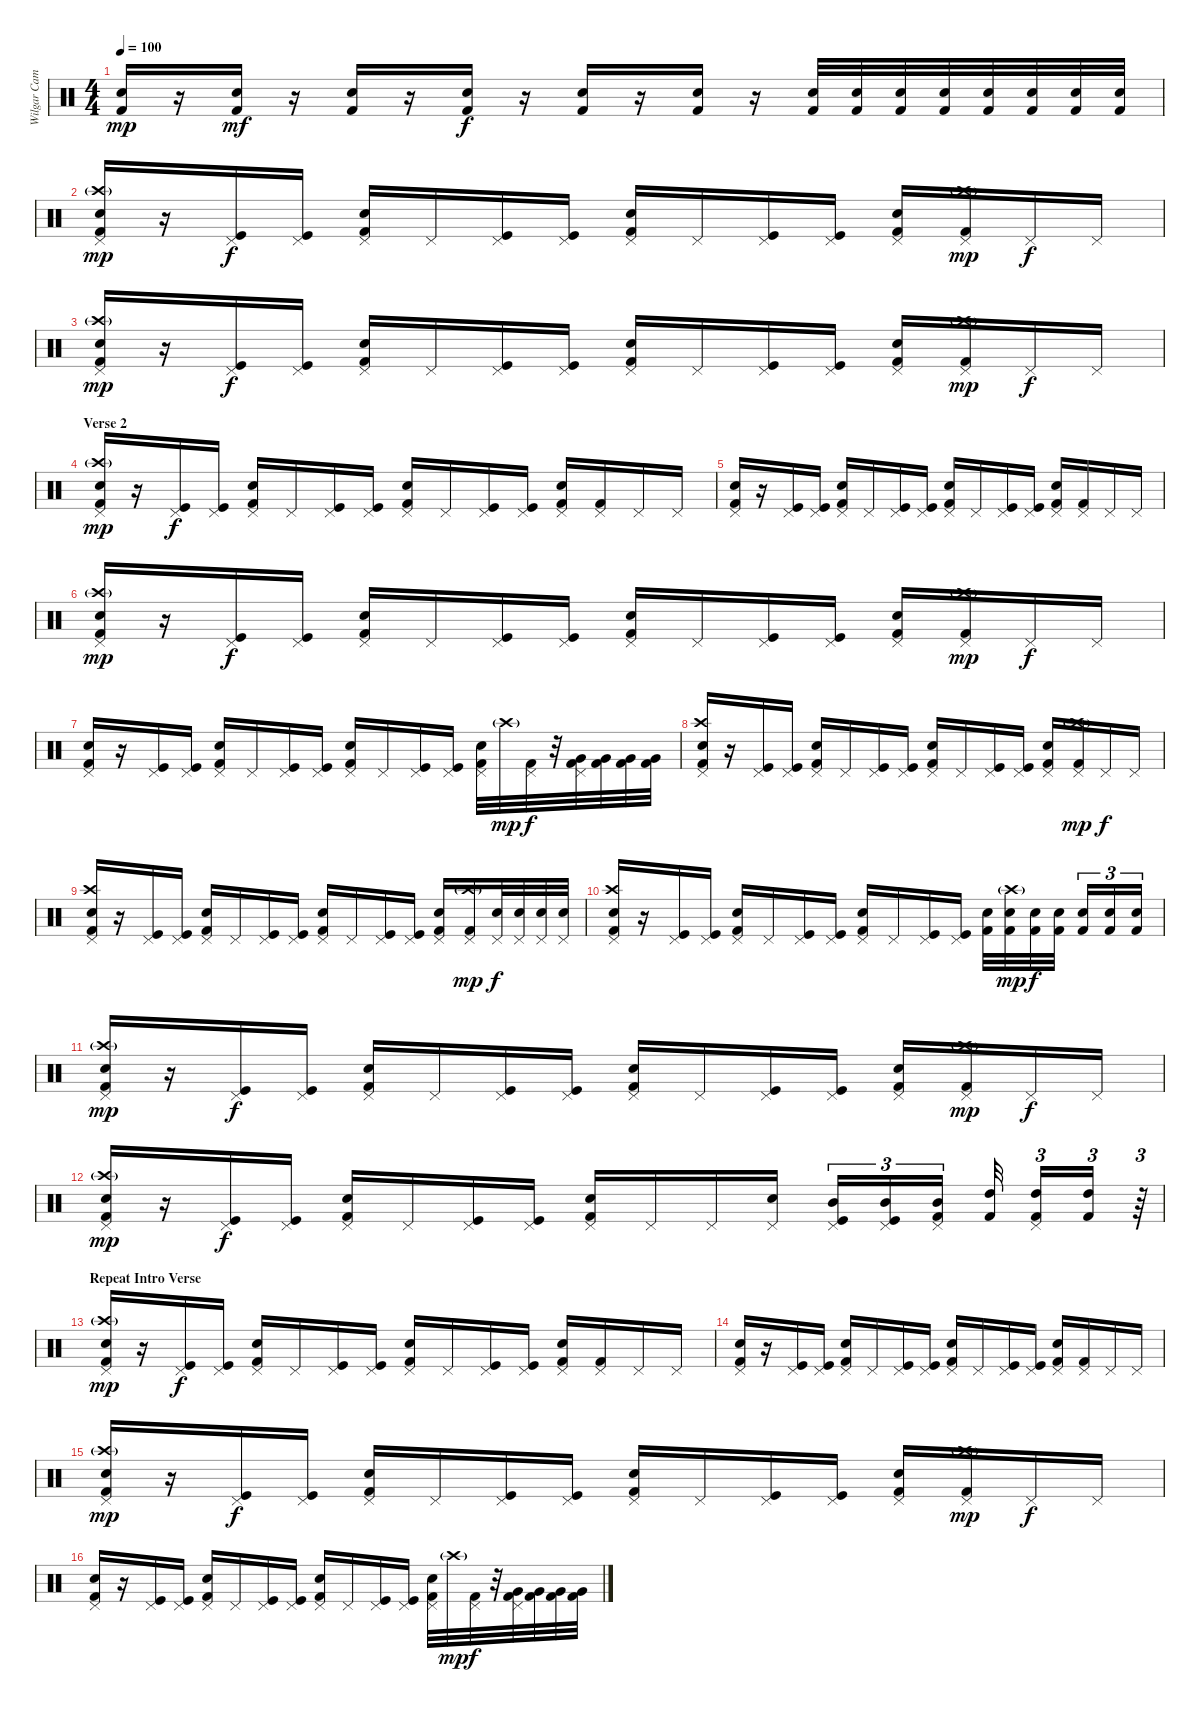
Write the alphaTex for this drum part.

\track ("Wilgar Campbell" "Wilgar Cam") {instrument percussion}
\staff {score}
\articulation defaults
\ts (4 4)
\tempo 100
\clef neutral
\ks c
("Snare (hit) 2" "Kick (hit) 2").16{dy mp} r.16 ("Snare (hit) 2" "Kick (hit) 2").16{dy mf} r.16 ("Snare (hit) 2" "Kick (hit) 2").16 r.16 ("Snare (hit) 2" "Kick (hit) 2").16{dy f} r.16 ("Snare (hit) 2" "Kick (hit) 2").16 r.16 ("Snare (hit) 2" "Kick (hit) 2").16 r.16 ("Snare (hit) 2" "Kick (hit) 2").32 ("Snare (hit) 2" "Kick (hit) 2").32 ("Snare (hit) 2" "Kick (hit) 2").32 ("Snare (hit) 2" "Kick (hit) 2").32 ("Electric Snare (hit)" "Kick (hit) 2").32 ("Electric Snare (hit)" "Kick (hit) 2").32 ("Electric Snare (hit)" "Kick (hit) 2").32 ("Electric Snare (hit)" "Kick (hit) 2").32 |
("Crash high (hit)"{g} "Snare (hit) 2" "Pedal Hi-Hat (hit)" "Kick (hit) 2").16{dy mp} r.16 ("Pedal Hi-Hat (hit)" "Kick (hit)").16{dy f} ("Pedal Hi-Hat (hit)" "Kick (hit)").16 ("Snare (hit) 2" "Pedal Hi-Hat (hit)" "Kick (hit) 2").16 "Pedal Hi-Hat (hit)".16 ("Pedal Hi-Hat (hit)" "Kick (hit)").16 ("Pedal Hi-Hat (hit)" "Kick (hit)").16 ("Snare (hit) 2" "Pedal Hi-Hat (hit)" "Kick (hit) 2").16 "Pedal Hi-Hat (hit)".16 ("Pedal Hi-Hat (hit)" "Kick (hit)").16 ("Pedal Hi-Hat (hit)" "Kick (hit)").16 ("Snare (hit) 2" "Pedal Hi-Hat (hit)" "Kick (hit) 2").16 ("Crash high (hit)"{g} "Pedal Hi-Hat (hit)" "Kick (hit) 2").16{dy mp} "Pedal Hi-Hat (hit)".16{dy f} "Pedal Hi-Hat (hit)".16 |
("Crash high (hit)"{g} "Snare (hit) 2" "Pedal Hi-Hat (hit)" "Kick (hit) 2").16{dy mp} r.16 ("Pedal Hi-Hat (hit)" "Kick (hit)").16{dy f} ("Pedal Hi-Hat (hit)" "Kick (hit)").16 ("Snare (hit) 2" "Pedal Hi-Hat (hit)" "Kick (hit) 2").16 "Pedal Hi-Hat (hit)".16 ("Pedal Hi-Hat (hit)" "Kick (hit)").16 ("Pedal Hi-Hat (hit)" "Kick (hit)").16 ("Snare (hit) 2" "Pedal Hi-Hat (hit)" "Kick (hit) 2").16 "Pedal Hi-Hat (hit)".16 ("Pedal Hi-Hat (hit)" "Kick (hit)").16 ("Pedal Hi-Hat (hit)" "Kick (hit)").16 ("Snare (hit) 2" "Pedal Hi-Hat (hit)" "Kick (hit) 2").16 ("Crash high (hit)"{g} "Pedal Hi-Hat (hit)" "Kick (hit) 2").16{dy mp} "Pedal Hi-Hat (hit)".16{dy f} "Pedal Hi-Hat (hit)".16 |
\section ("" "Verse 2")
("Crash high (hit)"{g} "Snare (hit) 2" "Pedal Hi-Hat (hit)" "Kick (hit) 2").16{dy mp} r.16 ("Pedal Hi-Hat (hit)" "Kick (hit)").16{dy f} ("Pedal Hi-Hat (hit)" "Kick (hit)").16 ("Snare (hit) 2" "Pedal Hi-Hat (hit)" "Kick (hit) 2").16 "Pedal Hi-Hat (hit)".16 ("Pedal Hi-Hat (hit)" "Kick (hit)").16 ("Pedal Hi-Hat (hit)" "Kick (hit)").16 ("Snare (hit) 2" "Pedal Hi-Hat (hit)" "Kick (hit) 2").16 "Pedal Hi-Hat (hit)".16 ("Pedal Hi-Hat (hit)" "Kick (hit)").16 ("Pedal Hi-Hat (hit)" "Kick (hit)").16 ("Snare (hit) 2" "Pedal Hi-Hat (hit)" "Kick (hit) 2").16 ("Pedal Hi-Hat (hit)" "Kick (hit) 2").16 "Pedal Hi-Hat (hit)".16 "Pedal Hi-Hat (hit)".16 |
("Snare (hit) 2" "Pedal Hi-Hat (hit)" "Kick (hit) 2").16 r.16 ("Pedal Hi-Hat (hit)" "Kick (hit)").16 ("Pedal Hi-Hat (hit)" "Kick (hit)").16 ("Snare (hit) 2" "Pedal Hi-Hat (hit)" "Kick (hit) 2").16 "Pedal Hi-Hat (hit)".16 ("Pedal Hi-Hat (hit)" "Kick (hit)").16 ("Pedal Hi-Hat (hit)" "Kick (hit)").16 ("Snare (hit) 2" "Pedal Hi-Hat (hit)" "Kick (hit) 2").16 "Pedal Hi-Hat (hit)".16 ("Pedal Hi-Hat (hit)" "Kick (hit)").16 ("Pedal Hi-Hat (hit)" "Kick (hit)").16 ("Snare (hit) 2" "Pedal Hi-Hat (hit)" "Kick (hit) 2").16 ("Pedal Hi-Hat (hit)" "Kick (hit) 2").16 "Pedal Hi-Hat (hit)".16 "Pedal Hi-Hat (hit)".16 |
("Crash high (hit)"{g} "Snare (hit) 2" "Pedal Hi-Hat (hit)" "Kick (hit) 2").16{dy mp} r.16 ("Pedal Hi-Hat (hit)" "Kick (hit)").16{dy f} ("Pedal Hi-Hat (hit)" "Kick (hit)").16 ("Snare (hit) 2" "Pedal Hi-Hat (hit)" "Kick (hit) 2").16 "Pedal Hi-Hat (hit)".16 ("Pedal Hi-Hat (hit)" "Kick (hit)").16 ("Pedal Hi-Hat (hit)" "Kick (hit)").16 ("Snare (hit) 2" "Pedal Hi-Hat (hit)" "Kick (hit) 2").16 "Pedal Hi-Hat (hit)".16 ("Pedal Hi-Hat (hit)" "Kick (hit)").16 ("Pedal Hi-Hat (hit)" "Kick (hit)").16 ("Snare (hit) 2" "Pedal Hi-Hat (hit)" "Kick (hit) 2").16 ("Crash high (hit)"{g} "Pedal Hi-Hat (hit)" "Kick (hit) 2").16{dy mp} "Pedal Hi-Hat (hit)".16{dy f} "Pedal Hi-Hat (hit)".16 |
("Snare (hit) 2" "Pedal Hi-Hat (hit)" "Kick (hit) 2").16 r.16 ("Pedal Hi-Hat (hit)" "Kick (hit)").16 ("Pedal Hi-Hat (hit)" "Kick (hit)").16 ("Snare (hit) 2" "Pedal Hi-Hat (hit)" "Kick (hit) 2").16 "Pedal Hi-Hat (hit)".16 ("Pedal Hi-Hat (hit)" "Kick (hit)").16 ("Pedal Hi-Hat (hit)" "Kick (hit)").16 ("Snare (hit) 2" "Pedal Hi-Hat (hit)" "Kick (hit) 2").16 "Pedal Hi-Hat (hit)".16 ("Pedal Hi-Hat (hit)" "Kick (hit)").16 ("Pedal Hi-Hat (hit)" "Kick (hit)").16 ("Snare (hit) 2" "Pedal Hi-Hat (hit)" "Kick (hit) 2").32 "Crash high (hit)"{g}.32{dy mp} ("Pedal Hi-Hat (hit)" "Kick (hit) 2").32{dy f} r.32 ("Pedal Hi-Hat (hit)" "Very Low Tom (hit)" "Kick (hit) 2").32 ("Very Low Tom (hit)" "Kick (hit) 2").32 ("Very Low Tom (hit)" "Kick (hit) 2").32 ("Very Low Tom (hit)" "Kick (hit) 2").32 |
("Crash high (hit)" "Snare (hit) 2" "Pedal Hi-Hat (hit)" "Kick (hit) 2").16 r.16 ("Pedal Hi-Hat (hit)" "Kick (hit)").16 ("Pedal Hi-Hat (hit)" "Kick (hit)").16 ("Snare (hit) 2" "Pedal Hi-Hat (hit)" "Kick (hit) 2").16 "Pedal Hi-Hat (hit)".16 ("Pedal Hi-Hat (hit)" "Kick (hit)").16 ("Pedal Hi-Hat (hit)" "Kick (hit)").16 ("Snare (hit) 2" "Pedal Hi-Hat (hit)" "Kick (hit) 2").16 "Pedal Hi-Hat (hit)".16 ("Pedal Hi-Hat (hit)" "Kick (hit)").16 ("Pedal Hi-Hat (hit)" "Kick (hit)").16 ("Snare (hit) 2" "Pedal Hi-Hat (hit)" "Kick (hit) 2").16 ("Crash high (hit)"{g} "Pedal Hi-Hat (hit)" "Kick (hit) 2").16{dy mp} "Pedal Hi-Hat (hit)".16{dy f} "Pedal Hi-Hat (hit)".16 |
("Crash high (hit)" "Snare (hit) 2" "Pedal Hi-Hat (hit)" "Kick (hit) 2").16 r.16 ("Pedal Hi-Hat (hit)" "Kick (hit)").16 ("Pedal Hi-Hat (hit)" "Kick (hit)").16 ("Snare (hit) 2" "Pedal Hi-Hat (hit)" "Kick (hit) 2").16 "Pedal Hi-Hat (hit)".16 ("Pedal Hi-Hat (hit)" "Kick (hit)").16 ("Pedal Hi-Hat (hit)" "Kick (hit)").16 ("Snare (hit) 2" "Pedal Hi-Hat (hit)" "Kick (hit) 2").16 "Pedal Hi-Hat (hit)".16 ("Pedal Hi-Hat (hit)" "Kick (hit)").16 ("Pedal Hi-Hat (hit)" "Kick (hit)").16 ("Snare (hit) 2" "Pedal Hi-Hat (hit)" "Kick (hit) 2").16 ("Crash high (hit)"{g} "Pedal Hi-Hat (hit)" "Kick (hit) 2").16{dy mp} ("Pedal Hi-Hat (hit)" "Electric Snare (hit)").32{dy f} ("Pedal Hi-Hat (hit)" "Electric Snare (hit)").32 ("Pedal Hi-Hat (hit)" "Electric Snare (hit)").32 ("Pedal Hi-Hat (hit)" "Electric Snare (hit)").32 |
("Crash high (hit)" "Snare (hit) 2" "Pedal Hi-Hat (hit)" "Kick (hit) 2").16 r.16 ("Pedal Hi-Hat (hit)" "Kick (hit)").16 ("Pedal Hi-Hat (hit)" "Kick (hit)").16 ("Snare (hit) 2" "Pedal Hi-Hat (hit)" "Kick (hit) 2").16 "Pedal Hi-Hat (hit)".16 ("Pedal Hi-Hat (hit)" "Kick (hit)").16 ("Pedal Hi-Hat (hit)" "Kick (hit)").16 ("Snare (hit) 2" "Pedal Hi-Hat (hit)" "Kick (hit) 2").16 "Pedal Hi-Hat (hit)".16 ("Pedal Hi-Hat (hit)" "Kick (hit)").16 ("Pedal Hi-Hat (hit)" "Kick (hit)").16 ("Snare (hit) 2" "Kick (hit) 2").32 ("Crash high (hit)"{g} "Snare (hit) 2" "Kick (hit) 2").32{dy mp} ("Snare (hit) 2" "Kick (hit) 2").32{dy f} ("Snare (hit) 2" "Kick (hit) 2").32 ("Snare (hit) 2" "Kick (hit) 2").16{tu (3 2)} ("Snare (hit) 2" "Kick (hit) 2").16{tu (3 2)} ("Snare (hit) 2" "Kick (hit) 2").16{tu (3 2)} |
("Crash high (hit)"{g} "Snare (hit) 2" "Pedal Hi-Hat (hit)" "Kick (hit) 2").16{dy mp} r.16 ("Pedal Hi-Hat (hit)" "Kick (hit)").16{dy f} ("Pedal Hi-Hat (hit)" "Kick (hit)").16 ("Snare (hit) 2" "Pedal Hi-Hat (hit)" "Kick (hit) 2").16 "Pedal Hi-Hat (hit)".16 ("Pedal Hi-Hat (hit)" "Kick (hit)").16 ("Pedal Hi-Hat (hit)" "Kick (hit)").16 ("Snare (hit) 2" "Pedal Hi-Hat (hit)" "Kick (hit) 2").16 "Pedal Hi-Hat (hit)".16 ("Pedal Hi-Hat (hit)" "Kick (hit)").16 ("Pedal Hi-Hat (hit)" "Kick (hit)").16 ("Snare (hit) 2" "Pedal Hi-Hat (hit)" "Kick (hit) 2").16 ("Crash high (hit)"{g} "Pedal Hi-Hat (hit)" "Kick (hit) 2").16{dy mp} "Pedal Hi-Hat (hit)".16{dy f} "Pedal Hi-Hat (hit)".16 |
("Crash high (hit)"{g} "Snare (hit) 2" "Pedal Hi-Hat (hit)" "Kick (hit) 2").16{dy mp} r.16 ("Pedal Hi-Hat (hit)" "Kick (hit)").16{dy f} ("Pedal Hi-Hat (hit)" "Kick (hit)").16 ("Snare (hit) 2" "Pedal Hi-Hat (hit)" "Kick (hit) 2").16 "Pedal Hi-Hat (hit)".16 ("Pedal Hi-Hat (hit)" "Kick (hit)").16 ("Pedal Hi-Hat (hit)" "Kick (hit)").16 ("Snare (hit) 2" "Pedal Hi-Hat (hit)" "Kick (hit) 2").16 "Pedal Hi-Hat (hit)".16 "Pedal Hi-Hat (hit)".16 ("Electric Snare (hit)" "Pedal Hi-Hat (hit)").16 ("Mid Tom (hit)" "Pedal Hi-Hat (hit)" "Kick (hit)").16{tu (3 2)} ("Mid Tom (hit)" "Pedal Hi-Hat (hit)" "Kick (hit)").16{tu (3 2)} ("Mid Tom (hit)" "Pedal Hi-Hat (hit)" "Kick (hit) 2").16{tu (3 2)} ("High Tom (hit)" "Kick (hit) 2").32 ("High Tom (hit)" "Pedal Hi-Hat (hit)" "Kick (hit) 2").16{tu (3 2)} ("High Tom (hit)" "Kick (hit) 2").16{tu (3 2)} r.64{tu (3 2)} |
\section ("" "Repeat Intro Verse")
("Crash high (hit)"{g} "Snare (hit) 2" "Pedal Hi-Hat (hit)" "Kick (hit) 2").16{dy mp} r.16 ("Pedal Hi-Hat (hit)" "Kick (hit)").16{dy f} ("Pedal Hi-Hat (hit)" "Kick (hit)").16 ("Snare (hit) 2" "Pedal Hi-Hat (hit)" "Kick (hit) 2").16 "Pedal Hi-Hat (hit)".16 ("Pedal Hi-Hat (hit)" "Kick (hit)").16 ("Pedal Hi-Hat (hit)" "Kick (hit)").16 ("Snare (hit) 2" "Pedal Hi-Hat (hit)" "Kick (hit) 2").16 "Pedal Hi-Hat (hit)".16 ("Pedal Hi-Hat (hit)" "Kick (hit)").16 ("Pedal Hi-Hat (hit)" "Kick (hit)").16 ("Snare (hit) 2" "Pedal Hi-Hat (hit)" "Kick (hit) 2").16 ("Pedal Hi-Hat (hit)" "Kick (hit) 2").16 "Pedal Hi-Hat (hit)".16 "Pedal Hi-Hat (hit)".16 |
("Snare (hit) 2" "Pedal Hi-Hat (hit)" "Kick (hit) 2").16 r.16 ("Pedal Hi-Hat (hit)" "Kick (hit)").16 ("Pedal Hi-Hat (hit)" "Kick (hit)").16 ("Snare (hit) 2" "Pedal Hi-Hat (hit)" "Kick (hit) 2").16 "Pedal Hi-Hat (hit)".16 ("Pedal Hi-Hat (hit)" "Kick (hit)").16 ("Pedal Hi-Hat (hit)" "Kick (hit)").16 ("Snare (hit) 2" "Pedal Hi-Hat (hit)" "Kick (hit) 2").16 "Pedal Hi-Hat (hit)".16 ("Pedal Hi-Hat (hit)" "Kick (hit)").16 ("Pedal Hi-Hat (hit)" "Kick (hit)").16 ("Snare (hit) 2" "Pedal Hi-Hat (hit)" "Kick (hit) 2").16 ("Pedal Hi-Hat (hit)" "Kick (hit) 2").16 "Pedal Hi-Hat (hit)".16 "Pedal Hi-Hat (hit)".16 |
("Crash high (hit)"{g} "Snare (hit) 2" "Pedal Hi-Hat (hit)" "Kick (hit) 2").16{dy mp} r.16 ("Pedal Hi-Hat (hit)" "Kick (hit)").16{dy f} ("Pedal Hi-Hat (hit)" "Kick (hit)").16 ("Snare (hit) 2" "Pedal Hi-Hat (hit)" "Kick (hit) 2").16 "Pedal Hi-Hat (hit)".16 ("Pedal Hi-Hat (hit)" "Kick (hit)").16 ("Pedal Hi-Hat (hit)" "Kick (hit)").16 ("Snare (hit) 2" "Pedal Hi-Hat (hit)" "Kick (hit) 2").16 "Pedal Hi-Hat (hit)".16 ("Pedal Hi-Hat (hit)" "Kick (hit)").16 ("Pedal Hi-Hat (hit)" "Kick (hit)").16 ("Snare (hit) 2" "Pedal Hi-Hat (hit)" "Kick (hit) 2").16 ("Crash high (hit)"{g} "Pedal Hi-Hat (hit)" "Kick (hit) 2").16{dy mp} "Pedal Hi-Hat (hit)".16{dy f} "Pedal Hi-Hat (hit)".16 |
("Snare (hit) 2" "Pedal Hi-Hat (hit)" "Kick (hit) 2").16 r.16 ("Pedal Hi-Hat (hit)" "Kick (hit)").16 ("Pedal Hi-Hat (hit)" "Kick (hit)").16 ("Snare (hit) 2" "Pedal Hi-Hat (hit)" "Kick (hit) 2").16 "Pedal Hi-Hat (hit)".16 ("Pedal Hi-Hat (hit)" "Kick (hit)").16 ("Pedal Hi-Hat (hit)" "Kick (hit)").16 ("Snare (hit) 2" "Pedal Hi-Hat (hit)" "Kick (hit) 2").16 "Pedal Hi-Hat (hit)".16 ("Pedal Hi-Hat (hit)" "Kick (hit)").16 ("Pedal Hi-Hat (hit)" "Kick (hit)").16 ("Snare (hit) 2" "Pedal Hi-Hat (hit)" "Kick (hit) 2").32 "Crash high (hit)"{g}.32{dy mp} ("Pedal Hi-Hat (hit)" "Kick (hit) 2").32{dy f} r.32 ("Pedal Hi-Hat (hit)" "Very Low Tom (hit)" "Kick (hit) 2").32 ("Very Low Tom (hit)" "Kick (hit) 2").32 ("Very Low Tom (hit)" "Kick (hit) 2").32 ("Very Low Tom (hit)" "Kick (hit) 2").32
